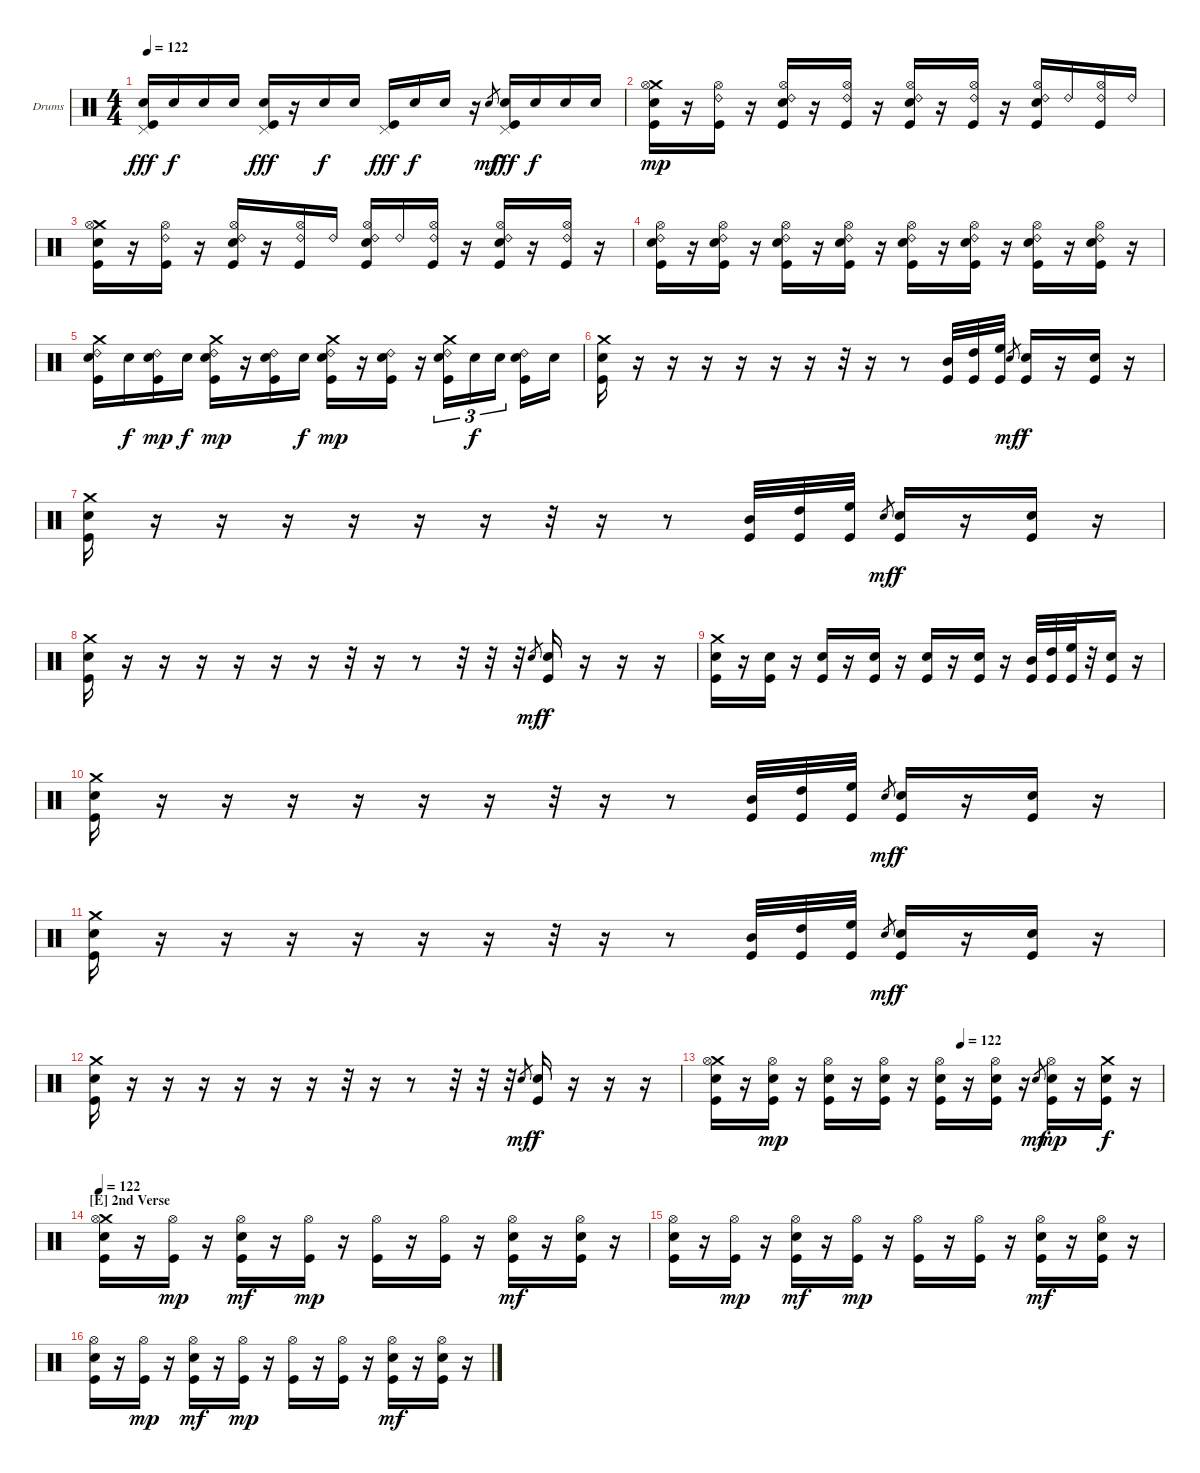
\bracketExtendMode groupsimilarinstruments
\firstSystemTrackNameOrientation horizontal
\otherSystemsTrackNameOrientation horizontal
\track ("Drumkit" "Drums") {instrument percussion}
\staff {score}
\articulation defaults
\ts (4 4)
\tempo 122
\clef neutral
\ks c
("Pedal Hi-Hat (hit)" "Snare (hit) 2" "Kick (hit)").16{dy fff} "Snare (hit) 2".16{dy f} "Snare (hit) 2".16 "Snare (hit) 2".16 ("Pedal Hi-Hat (hit)" "Snare (hit) 2" "Kick (hit)").16{dy fff} r.16 "Snare (hit) 2".16{dy f} "Snare (hit) 2".16 ("Pedal Hi-Hat (hit)" "Kick (hit)").16{dy fff} "Snare (hit) 2".16{dy f} "Snare (hit) 2".16 r.16 "Snare (hit) 2".8{gr dy mf} ("Pedal Hi-Hat (hit)" "Snare (hit) 2" "Kick (hit)").16{dy fff} "Snare (hit) 2".16{dy f} "Snare (hit) 2".16 "Snare (hit) 2".16 |
("Crash medium (hit)" "Hi-Hat (open)" "Snare (hit) 2" "Kick (hit)").16{dy mp} r.16 ("Ride (bell) 2" "Hi-Hat (open)" "Kick (hit)").16 r.16 ("Ride (bell) 2" "Hi-Hat (open)" "Snare (hit) 2" "Kick (hit)").16 r.16 ("Ride (bell) 2" "Hi-Hat (open)" "Kick (hit)").16 r.16 ("Ride (bell) 2" "Hi-Hat (open)" "Snare (hit) 2" "Kick (hit)").16 r.16 ("Ride (bell) 2" "Hi-Hat (open)" "Kick (hit)").16 r.16 ("Ride (bell) 2" "Hi-Hat (open)" "Snare (hit) 2" "Kick (hit)").16 "Ride (bell) 2".16 ("Ride (bell) 2" "Hi-Hat (open)" "Kick (hit)").16 "Ride (bell) 2".16 |
("Crash medium (hit)" "Hi-Hat (open)" "Snare (hit) 2" "Kick (hit)").16 r.16 ("Ride (bell) 2" "Hi-Hat (open)" "Kick (hit)").16 r.16 ("Ride (bell) 2" "Hi-Hat (open)" "Snare (hit) 2" "Kick (hit)").16 r.16 ("Ride (bell) 2" "Hi-Hat (open)" "Kick (hit)").16 "Ride (bell) 2".16 ("Ride (bell) 2" "Hi-Hat (open)" "Snare (hit) 2" "Kick (hit)").16 "Ride (bell) 2".16 ("Ride (bell) 2" "Hi-Hat (open)" "Kick (hit)").16 r.16 ("Ride (bell) 2" "Hi-Hat (open)" "Snare (hit) 2" "Kick (hit)").16 r.16 ("Ride (bell) 2" "Hi-Hat (open)" "Kick (hit)").16 r.16 |
("Ride (bell) 2" "Hi-Hat (open)" "Snare (hit) 2" "Kick (hit)").16 r.16 ("Ride (bell) 2" "Hi-Hat (open)" "Snare (hit) 2" "Kick (hit)").16 r.16 ("Ride (bell) 2" "Hi-Hat (open)" "Snare (hit) 2" "Kick (hit)").16 r.16 ("Ride (bell) 2" "Hi-Hat (open)" "Snare (hit) 2" "Kick (hit)").16 r.16 ("Ride (bell) 2" "Hi-Hat (open)" "Snare (hit) 2" "Kick (hit)").16 r.16 ("Ride (bell) 2" "Hi-Hat (open)" "Snare (hit) 2" "Kick (hit)").16 r.16 ("Ride (bell) 2" "Hi-Hat (open)" "Snare (hit) 2" "Kick (hit)").16 r.16 ("Ride (bell) 2" "Hi-Hat (open)" "Snare (hit) 2" "Kick (hit)").16 r.16 |
("Ride (bell) 2" "Crash medium (hit)" "Snare (hit) 2" "Kick (hit)").16 "Snare (hit) 2".16{dy f} ("Ride (bell) 2" "Snare (hit) 2" "Kick (hit)").16{dy mp} "Snare (hit) 2".16{dy f} ("Ride (bell) 2" "Crash medium (hit)" "Snare (hit) 2" "Kick (hit)").16{dy mp} r.16 ("Ride (bell) 2" "Snare (hit) 2" "Kick (hit)").16 "Snare (hit) 2".16{dy f} ("Ride (bell) 2" "Crash medium (hit)" "Snare (hit) 2" "Kick (hit)").16{dy mp} r.16 ("Ride (bell) 2" "Snare (hit) 2" "Kick (hit)").16 r.16 ("Ride (bell) 2" "Crash medium (hit)" "Snare (hit) 2" "Kick (hit)").16{tu (3 2)} "Snare (hit) 2".16{tu (3 2) dy f} "Snare (hit) 2".16{tu (3 2)} ("Ride (bell) 2" "Snare (hit) 2" "Kick (hit)").16 "Snare (hit) 2".16 |
("Crash medium (hit)" "Snare (hit) 2" "Kick (hit)").16 r.16 r.16 r.16 r.16 r.16 r.16 r.32 r.16 r.8 ("Mid Tom (hit)" "Kick (hit)").32 ("High Tom (hit)" "Kick (hit)").32 ("High Floor Tom (hit)" "Kick (hit)").32 "Snare (hit) 2".8{gr dy mf} ("Snare (hit) 2" "Kick (hit)").16{dy f} r.16 ("Snare (hit) 2" "Kick (hit)").16 r.16 |
("Crash medium (hit)" "Snare (hit) 2" "Kick (hit)").16 r.16 r.16 r.16 r.16 r.16 r.16 r.32 r.16 r.8 ("Mid Tom (hit)" "Kick (hit)").32 ("High Tom (hit)" "Kick (hit)").32 ("High Floor Tom (hit)" "Kick (hit)").32 "Snare (hit) 2".8{gr dy mf} ("Snare (hit) 2" "Kick (hit)").16{dy f} r.16 ("Snare (hit) 2" "Kick (hit)").16 r.16 |
("Crash medium (hit)" "Snare (hit) 2" "Kick (hit)").16 r.16 r.16 r.16 r.16 r.16 r.16 r.32 r.16 r.8 r.32 r.32 r.32 "Snare (hit) 2".8{gr dy mf} ("Snare (hit) 2" "Kick (hit)").16{dy f} r.16 r.16 r.16 |
("Crash medium (hit)" "Snare (hit) 2" "Kick (hit)").16 r.16 ("Snare (hit) 2" "Kick (hit)").16 r.16 ("Snare (hit) 2" "Kick (hit)").16 r.16 ("Snare (hit) 2" "Kick (hit)").16 r.16 ("Snare (hit) 2" "Kick (hit)").16 r.16 ("Snare (hit) 2" "Kick (hit)").16 r.16 ("Mid Tom (hit)" "Kick (hit)").32 ("High Tom (hit)" "Kick (hit)").32 ("High Floor Tom (hit)" "Kick (hit)").32 r.32 ("Snare (hit) 2" "Kick (hit)").16 r.16 |
("Crash medium (hit)" "Snare (hit) 2" "Kick (hit)").16 r.16 r.16 r.16 r.16 r.16 r.16 r.32 r.16 r.8 ("Mid Tom (hit)" "Kick (hit)").32 ("High Tom (hit)" "Kick (hit)").32 ("High Floor Tom (hit)" "Kick (hit)").32 "Snare (hit) 2".8{gr dy mf} ("Snare (hit) 2" "Kick (hit)").16{dy f} r.16 ("Snare (hit) 2" "Kick (hit)").16 r.16 |
("Crash medium (hit)" "Snare (hit) 2" "Kick (hit)").16 r.16 r.16 r.16 r.16 r.16 r.16 r.32 r.16 r.8 ("Mid Tom (hit)" "Kick (hit)").32 ("High Tom (hit)" "Kick (hit)").32 ("High Floor Tom (hit)" "Kick (hit)").32 "Snare (hit) 2".8{gr dy mf} ("Snare (hit) 2" "Kick (hit)").16{dy f} r.16 ("Snare (hit) 2" "Kick (hit)").16 r.16 |
("Crash medium (hit)" "Snare (hit) 2" "Kick (hit)").16 r.16 r.16 r.16 r.16 r.16 r.16 r.32 r.16 r.8 r.32 r.32 r.32 "Snare (hit) 2".8{gr dy mf} ("Snare (hit) 2" "Kick (hit)").16{dy f} r.16 r.16 r.16 |
\tempo (122 0.553846)
("Crash medium (hit)" "Hi-Hat (open)" "Snare (hit) 2" "Kick (hit)").16 r.16 ("Hi-Hat (open)" "Snare (hit) 2" "Kick (hit)").16{dy mp} r.16 ("Hi-Hat (open)" "Snare (hit) 2" "Kick (hit)").16 r.16 ("Hi-Hat (open)" "Snare (hit) 2" "Kick (hit)").16 r.16 ("Hi-Hat (open)" "Snare (hit) 2" "Kick (hit)").16 r.16 ("Hi-Hat (open)" "Snare (hit) 2" "Kick (hit)").16 r.16 "Snare (hit) 2".8{gr dy mf} ("Hi-Hat (open)" "Snare (hit) 2" "Kick (hit)").16{dy mp} r.16 ("Crash medium (hit)" "Snare (hit) 2" "Kick (hit)").16{dy f} r.16 |
\section ("E" "2nd Verse")
\tempo 122
("Crash medium (hit)" "Hi-Hat (open)" "Snare (hit) 2" "Kick (hit)").16 r.16 ("Hi-Hat (open)" "Kick (hit)").16{dy mp} r.16 ("Hi-Hat (open)" "Snare (hit) 2" "Kick (hit)").16{dy mf} r.16 ("Hi-Hat (open)" "Kick (hit)").16{dy mp} r.16 ("Hi-Hat (open)" "Kick (hit)").16 r.16 ("Hi-Hat (open)" "Kick (hit)").16 r.16 ("Hi-Hat (open)" "Snare (hit) 2" "Kick (hit)").16{dy mf} r.16 ("Hi-Hat (open)" "Snare (hit) 2" "Kick (hit)").16 r.16 |
("Hi-Hat (open)" "Snare (hit) 2" "Kick (hit)").16 r.16 ("Hi-Hat (open)" "Kick (hit)").16{dy mp} r.16 ("Hi-Hat (open)" "Snare (hit) 2" "Kick (hit)").16{dy mf} r.16 ("Hi-Hat (open)" "Kick (hit)").16{dy mp} r.16 ("Hi-Hat (open)" "Kick (hit)").16 r.16 ("Hi-Hat (open)" "Kick (hit)").16 r.16 ("Hi-Hat (open)" "Snare (hit) 2" "Kick (hit)").16{dy mf} r.16 ("Hi-Hat (open)" "Snare (hit) 2" "Kick (hit)").16 r.16 |
("Hi-Hat (open)" "Snare (hit) 2" "Kick (hit)").16 r.16 ("Hi-Hat (open)" "Kick (hit)").16{dy mp} r.16 ("Hi-Hat (open)" "Snare (hit) 2" "Kick (hit)").16{dy mf} r.16 ("Hi-Hat (open)" "Kick (hit)").16{dy mp} r.16 ("Hi-Hat (open)" "Kick (hit)").16 r.16 ("Hi-Hat (open)" "Kick (hit)").16 r.16 ("Hi-Hat (open)" "Snare (hit) 2" "Kick (hit)").16{dy mf} r.16 ("Hi-Hat (open)" "Snare (hit) 2" "Kick (hit)").16 r.16
